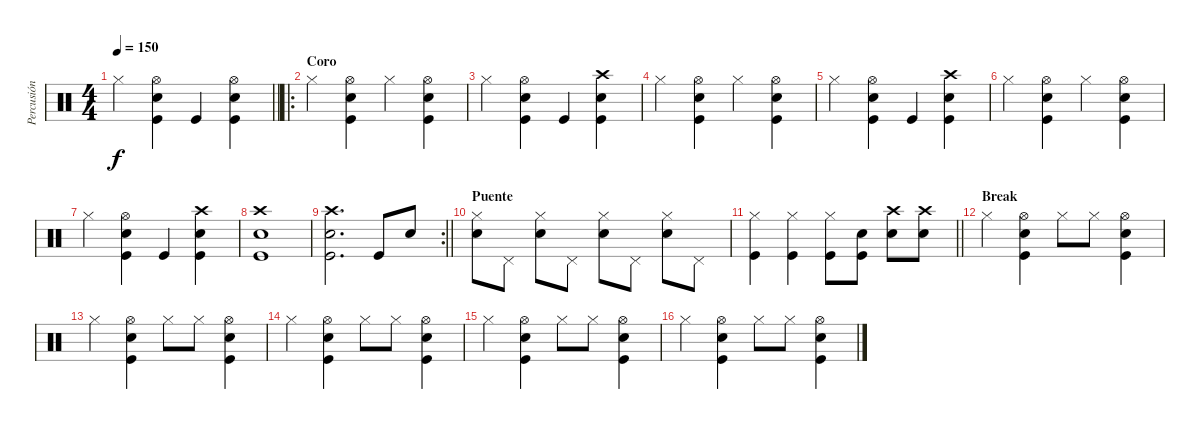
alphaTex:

\track ("Percusión" "Percusión") {instrument percussion}
\staff {score}
\articulation defaults
\ts (4 4)
\tempo 150
\clef neutral
\barLineRight lightlight
\ks c "Hi-Hat (closed)".4{dy f}
("Kick (hit)" "Snare (hit) 2" "Hi-Hat (open)").4 "Kick (hit)".4 ("Kick (hit)" "Snare (hit) 2" "Hi-Hat (open)").4 |
\ro
\section ("" "Coro")
"Hi-Hat (closed)".4 ("Kick (hit)" "Snare (hit) 2" "Hi-Hat (open)").4 "Hi-Hat (closed)".4 ("Kick (hit)" "Snare (hit) 2" "Hi-Hat (open)").4 |
"Hi-Hat (closed)".4 ("Kick (hit)" "Snare (hit) 2" "Hi-Hat (open)").4 "Kick (hit)".4 ("Kick (hit)" "Snare (hit) 2" "Crash high (hit)").4 |
"Hi-Hat (closed)".4 ("Kick (hit)" "Snare (hit) 2" "Hi-Hat (open)").4 "Hi-Hat (closed)".4 ("Kick (hit)" "Snare (hit) 2" "Hi-Hat (open)").4 |
"Hi-Hat (closed)".4 ("Kick (hit)" "Snare (hit) 2" "Hi-Hat (open)").4 "Kick (hit)".4 ("Kick (hit)" "Snare (hit) 2" "Crash high (hit)").4 |
"Hi-Hat (closed)".4 ("Kick (hit)" "Snare (hit) 2" "Hi-Hat (open)").4 "Hi-Hat (closed)".4 ("Kick (hit)" "Snare (hit) 2" "Hi-Hat (open)").4 |
"Hi-Hat (closed)".4 ("Kick (hit)" "Snare (hit) 2" "Hi-Hat (open)").4 "Kick (hit)".4 ("Kick (hit)" "Snare (hit) 2" "Crash high (hit)").4 |
("Kick (hit)" "Snare (hit) 2" "Crash high (hit)").1 |
\rc 2
\barLineRight lightlight
("Kick (hit)" "Snare (hit) 2" "Crash high (hit)").2{d} "Kick (hit)".8 "Snare (hit) 2".8 |
\section ("" "Puente")
("Hand Clap (hit)" "Hi-Hat (closed)").8 "Pedal Hi-Hat (hit)".8 ("Hand Clap (hit)" "Hi-Hat (closed)").8 "Pedal Hi-Hat (hit)".8 ("Hand Clap (hit)" "Hi-Hat (closed)").8 "Pedal Hi-Hat (hit)".8 ("Hand Clap (hit)" "Hi-Hat (closed)").8 "Pedal Hi-Hat (hit)".8 |
\barLineRight lightlight
("Hi-Hat (closed)" "Kick (hit)").4 ("Hi-Hat (closed)" "Kick (hit)").4 ("Hi-Hat (closed)" "Kick (hit)").8 ("Kick (hit)" "Snare (hit) 2").8 ("Snare (hit) 2" "Crash high (hit)").8 ("Snare (hit) 2" "Crash high (hit)").8 |
\section ("" "Break")
"Hi-Hat (closed)".4 ("Kick (hit)" "Snare (hit) 2" "Hi-Hat (open)").4 "Hi-Hat (closed)".8 "Hi-Hat (closed)".8 ("Kick (hit)" "Snare (hit) 2" "Hi-Hat (open)").4 |
"Hi-Hat (closed)".4 ("Kick (hit)" "Snare (hit) 2" "Hi-Hat (open)").4 "Hi-Hat (closed)".8 "Hi-Hat (closed)".8 ("Kick (hit)" "Snare (hit) 2" "Hi-Hat (open)").4 |
"Hi-Hat (closed)".4 ("Kick (hit)" "Snare (hit) 2" "Hi-Hat (open)").4 "Hi-Hat (closed)".8 "Hi-Hat (closed)".8 ("Kick (hit)" "Snare (hit) 2" "Hi-Hat (open)").4 |
"Hi-Hat (closed)".4 ("Kick (hit)" "Snare (hit) 2" "Hi-Hat (open)").4 "Hi-Hat (closed)".8 "Hi-Hat (closed)".8 ("Kick (hit)" "Snare (hit) 2" "Hi-Hat (open)").4 |
"Hi-Hat (closed)".4 ("Kick (hit)" "Snare (hit) 2" "Hi-Hat (open)").4 "Hi-Hat (closed)".8 "Hi-Hat (closed)".8 ("Kick (hit)" "Snare (hit) 2" "Hi-Hat (open)").4
